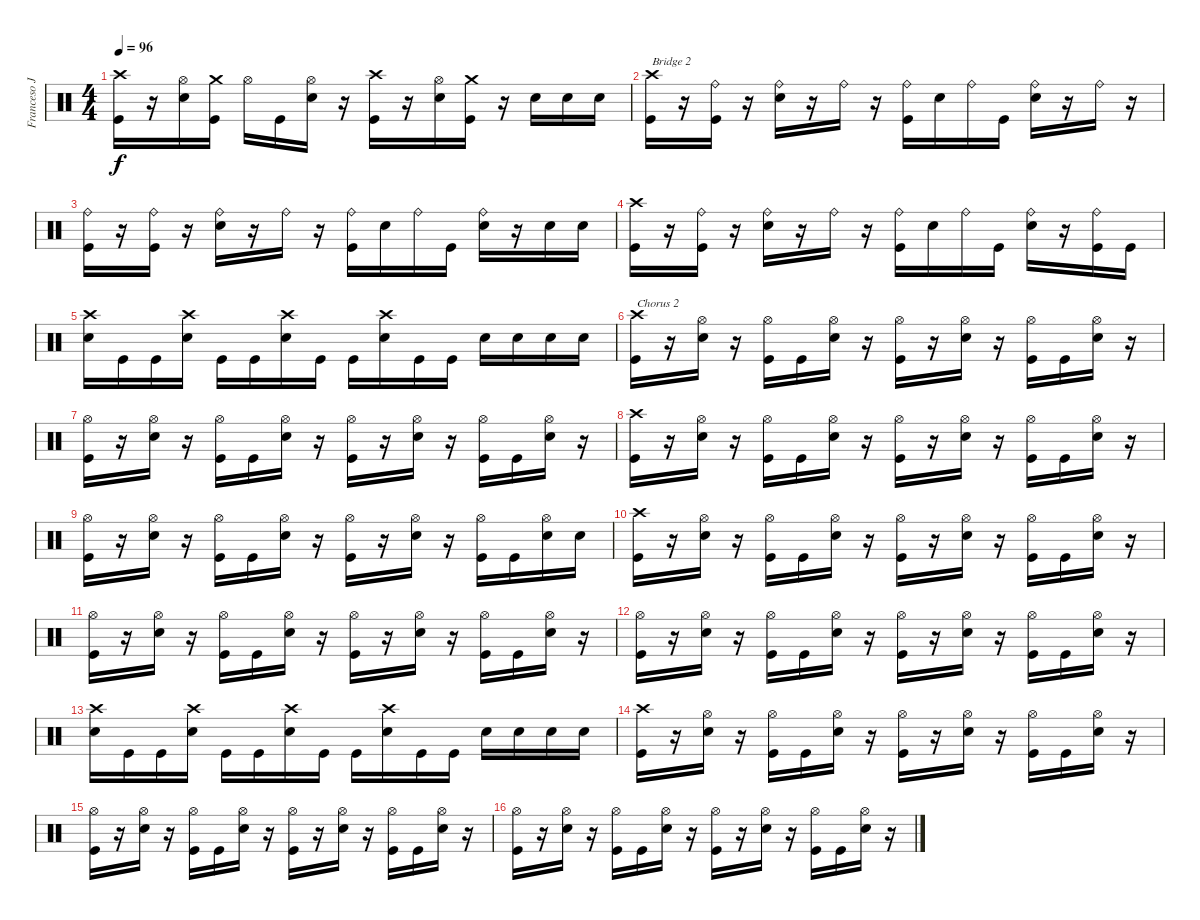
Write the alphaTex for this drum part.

\track ("Franceso Jovino" "Franceso J") {instrument percussion}
\staff {score}
\articulation defaults
\ts (4 4)
\tempo 96
\clef neutral
\ks c
("Kick (hit)" "Crash high (hit)").16{dy f} r.16 ("Snare (hit) 2" "Hi-Hat (open)").16 ("Kick (hit)" "Crash medium (hit)").16 "Hi-Hat (open)".16 "Kick (hit)".16 ("Snare (hit) 2" "Hi-Hat (open)").16 r.16 ("Kick (hit)" "Crash high (hit)").16 r.16 ("Snare (hit) 2" "Hi-Hat (open)").16 ("Kick (hit)" "Crash medium (hit)").16 r.16 "Snare (hit) 2".16 "Snare (hit) 2".16 "Snare (hit) 2".16 |
("Kick (hit)" "Crash high (hit)").16{txt "Bridge 2"} r.16 ("Kick (hit)" "Ride (bell)").16 r.16 ("Ride (bell)" "Snare (hit) 2").16 r.16 "Ride (bell)".16 r.16 ("Kick (hit)" "Ride (bell)").16 "Snare (hit) 2".16 "Ride (bell)".16 "Kick (hit)".16 ("Ride (bell)" "Snare (hit) 2").16 r.16 "Ride (bell)".16 r.16 |
("Kick (hit)" "Ride (bell)").16 r.16 ("Kick (hit)" "Ride (bell)").16 r.16 ("Ride (bell)" "Snare (hit) 2").16 r.16 "Ride (bell)".16 r.16 ("Kick (hit)" "Ride (bell)").16 "Snare (hit) 2".16 "Ride (bell)".16 "Kick (hit)".16 ("Ride (bell)" "Snare (hit) 2").16 r.16 "Snare (hit) 2".16 "Snare (hit) 2".16 |
("Kick (hit)" "Crash high (hit)").16 r.16 ("Kick (hit)" "Ride (bell)").16 r.16 ("Ride (bell)" "Snare (hit) 2").16 r.16 "Ride (bell)".16 r.16 ("Kick (hit)" "Ride (bell)").16 "Snare (hit) 2".16 "Ride (bell)".16 "Kick (hit)".16 ("Ride (bell)" "Snare (hit) 2").16 r.16 ("Ride (bell)" "Kick (hit)").16 "Kick (hit)".16 |
("Snare (hit) 2" "Crash high (hit)").16 "Kick (hit)".16 "Kick (hit)".16 ("Snare (hit) 2" "Crash high (hit)").16 "Kick (hit)".16 "Kick (hit)".16 ("Snare (hit) 2" "Crash high (hit)").16 "Kick (hit)".16 "Kick (hit)".16 ("Snare (hit) 2" "Crash high (hit)").16 "Kick (hit)".16 "Kick (hit)".16 "Snare (hit) 2".16 "Snare (hit) 2".16 "Snare (hit) 2".16 "Snare (hit) 2".16 |
("Kick (hit)" "Crash high (hit)").16{txt "Chorus 2"} r.16 ("Snare (hit) 2" "Hi-Hat (open)").16 r.16 ("Hi-Hat (open)" "Kick (hit)").16 "Kick (hit)".16 ("Snare (hit) 2" "Hi-Hat (open)").16 r.16 ("Kick (hit)" "Hi-Hat (open)").16 r.16 ("Snare (hit) 2" "Hi-Hat (open)").16 r.16 ("Hi-Hat (open)" "Kick (hit)").16 "Kick (hit)".16 ("Snare (hit) 2" "Hi-Hat (open)").16 r.16 |
("Kick (hit)" "Hi-Hat (open)").16 r.16 ("Snare (hit) 2" "Hi-Hat (open)").16 r.16 ("Hi-Hat (open)" "Kick (hit)").16 "Kick (hit)".16 ("Snare (hit) 2" "Hi-Hat (open)").16 r.16 ("Kick (hit)" "Hi-Hat (open)").16 r.16 ("Snare (hit) 2" "Hi-Hat (open)").16 r.16 ("Hi-Hat (open)" "Kick (hit)").16 "Kick (hit)".16 ("Snare (hit) 2" "Hi-Hat (open)").16 r.16 |
("Kick (hit)" "Crash high (hit)").16 r.16 ("Snare (hit) 2" "Hi-Hat (open)").16 r.16 ("Hi-Hat (open)" "Kick (hit)").16 "Kick (hit)".16 ("Snare (hit) 2" "Hi-Hat (open)").16 r.16 ("Kick (hit)" "Hi-Hat (open)").16 r.16 ("Snare (hit) 2" "Hi-Hat (open)").16 r.16 ("Hi-Hat (open)" "Kick (hit)").16 "Kick (hit)".16 ("Snare (hit) 2" "Hi-Hat (open)").16 r.16 |
("Kick (hit)" "Hi-Hat (open)").16 r.16 ("Snare (hit) 2" "Hi-Hat (open)").16 r.16 ("Hi-Hat (open)" "Kick (hit)").16 "Kick (hit)".16 ("Snare (hit) 2" "Hi-Hat (open)").16 r.16 ("Kick (hit)" "Hi-Hat (open)").16 r.16 ("Snare (hit) 2" "Hi-Hat (open)").16 r.16 ("Hi-Hat (open)" "Kick (hit)").16 "Kick (hit)".16 ("Snare (hit) 2" "Hi-Hat (open)").16 "Snare (hit) 2".16 |
("Kick (hit)" "Crash high (hit)").16 r.16 ("Snare (hit) 2" "Hi-Hat (open)").16 r.16 ("Hi-Hat (open)" "Kick (hit)").16 "Kick (hit)".16 ("Snare (hit) 2" "Hi-Hat (open)").16 r.16 ("Kick (hit)" "Hi-Hat (open)").16 r.16 ("Snare (hit) 2" "Hi-Hat (open)").16 r.16 ("Hi-Hat (open)" "Kick (hit)").16 "Kick (hit)".16 ("Snare (hit) 2" "Hi-Hat (open)").16 r.16 |
("Kick (hit)" "Hi-Hat (open)").16 r.16 ("Snare (hit) 2" "Hi-Hat (open)").16 r.16 ("Hi-Hat (open)" "Kick (hit)").16 "Kick (hit)".16 ("Snare (hit) 2" "Hi-Hat (open)").16 r.16 ("Kick (hit)" "Hi-Hat (open)").16 r.16 ("Snare (hit) 2" "Hi-Hat (open)").16 r.16 ("Hi-Hat (open)" "Kick (hit)").16 "Kick (hit)".16 ("Snare (hit) 2" "Hi-Hat (open)").16 r.16 |
("Kick (hit)" "Hi-Hat (open)").16 r.16 ("Snare (hit) 2" "Hi-Hat (open)").16 r.16 ("Hi-Hat (open)" "Kick (hit)").16 "Kick (hit)".16 ("Snare (hit) 2" "Hi-Hat (open)").16 r.16 ("Kick (hit)" "Hi-Hat (open)").16 r.16 ("Snare (hit) 2" "Hi-Hat (open)").16 r.16 ("Hi-Hat (open)" "Kick (hit)").16 "Kick (hit)".16 ("Snare (hit) 2" "Hi-Hat (open)").16 r.16 |
("Snare (hit) 2" "Crash high (hit)").16 "Kick (hit)".16 "Kick (hit)".16 ("Snare (hit) 2" "Crash high (hit)").16 "Kick (hit)".16 "Kick (hit)".16 ("Snare (hit) 2" "Crash high (hit)").16 "Kick (hit)".16 "Kick (hit)".16 ("Snare (hit) 2" "Crash high (hit)").16 "Kick (hit)".16 "Kick (hit)".16 "Snare (hit) 2".16 "Snare (hit) 2".16 "Snare (hit) 2".16 "Snare (hit) 2".16 |
("Kick (hit)" "Crash high (hit)").16 r.16 ("Snare (hit) 2" "Hi-Hat (open)").16 r.16 ("Hi-Hat (open)" "Kick (hit)").16 "Kick (hit)".16 ("Snare (hit) 2" "Hi-Hat (open)").16 r.16 ("Kick (hit)" "Hi-Hat (open)").16 r.16 ("Snare (hit) 2" "Hi-Hat (open)").16 r.16 ("Hi-Hat (open)" "Kick (hit)").16 "Kick (hit)".16 ("Snare (hit) 2" "Hi-Hat (open)").16 r.16 |
("Kick (hit)" "Hi-Hat (open)").16 r.16 ("Snare (hit) 2" "Hi-Hat (open)").16 r.16 ("Hi-Hat (open)" "Kick (hit)").16 "Kick (hit)".16 ("Snare (hit) 2" "Hi-Hat (open)").16 r.16 ("Kick (hit)" "Hi-Hat (open)").16 r.16 ("Snare (hit) 2" "Hi-Hat (open)").16 r.16 ("Hi-Hat (open)" "Kick (hit)").16 "Kick (hit)".16 ("Snare (hit) 2" "Hi-Hat (open)").16 r.16 |
("Kick (hit)" "Hi-Hat (open)").16 r.16 ("Snare (hit) 2" "Hi-Hat (open)").16 r.16 ("Hi-Hat (open)" "Kick (hit)").16 "Kick (hit)".16 ("Snare (hit) 2" "Hi-Hat (open)").16 r.16 ("Kick (hit)" "Hi-Hat (open)").16 r.16 ("Snare (hit) 2" "Hi-Hat (open)").16 r.16 ("Hi-Hat (open)" "Kick (hit)").16 "Kick (hit)".16 ("Snare (hit) 2" "Hi-Hat (open)").16 r.16
